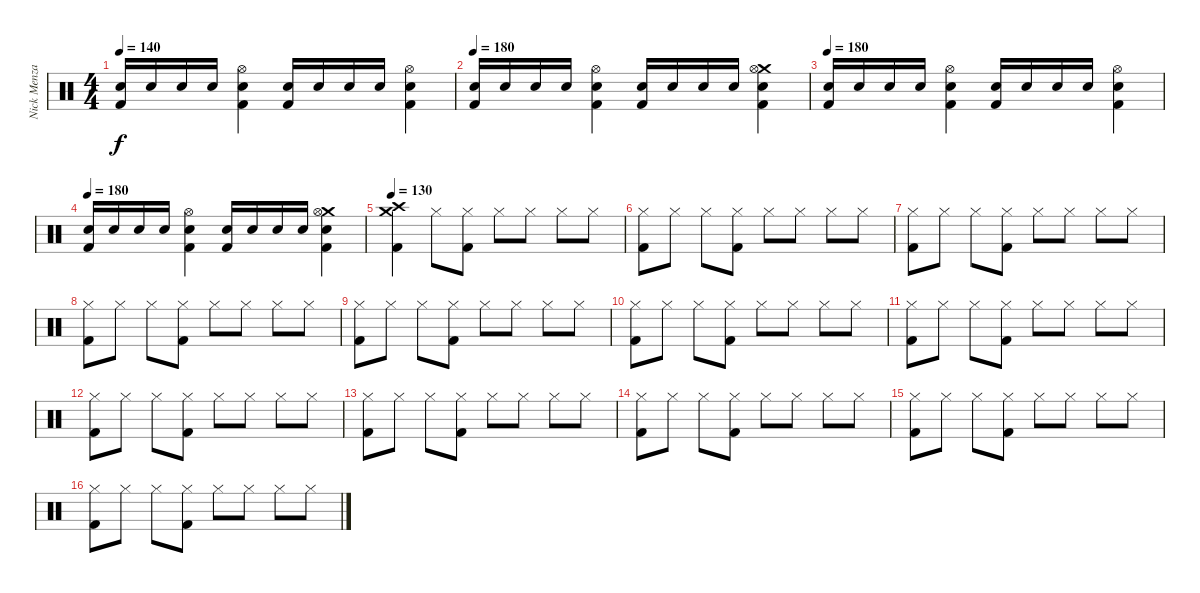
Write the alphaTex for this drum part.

\track ("Nick Menza" "Nick Menza") {instrument percussion}
\staff {score}
\articulation defaults
\ts (4 4)
\tempo 140
\tempo 180
\tempo 140
\clef neutral
\ks c
("Kick (hit) 2" "Electric Snare (hit)").16{dy f} "Electric Snare (hit)".16 "Electric Snare (hit)".16 "Electric Snare (hit)".16 ("Kick (hit) 2" "Electric Snare (hit)" "Hi-Hat (open)").4 ("Kick (hit) 2" "Electric Snare (hit)").16 "Electric Snare (hit)".16 "Electric Snare (hit)".16 "Electric Snare (hit)".16 ("Kick (hit) 2" "Electric Snare (hit)" "Hi-Hat (open)").4 |
\tempo 180
("Kick (hit) 2" "Electric Snare (hit)").16 "Electric Snare (hit)".16 "Electric Snare (hit)".16 "Electric Snare (hit)".16 ("Kick (hit) 2" "Electric Snare (hit)" "Hi-Hat (open)").4 ("Kick (hit) 2" "Electric Snare (hit)").16 "Electric Snare (hit)".16 "Electric Snare (hit)".16 "Electric Snare (hit)".16 ("Crash medium (hit)" "Kick (hit) 2" "Electric Snare (hit)" "Hi-Hat (open)").4 |
\tempo 180
("Kick (hit) 2" "Electric Snare (hit)").16 "Electric Snare (hit)".16 "Electric Snare (hit)".16 "Electric Snare (hit)".16 ("Kick (hit) 2" "Electric Snare (hit)" "Hi-Hat (open)").4 ("Kick (hit) 2" "Electric Snare (hit)").16 "Electric Snare (hit)".16 "Electric Snare (hit)".16 "Electric Snare (hit)".16 ("Kick (hit) 2" "Electric Snare (hit)" "Hi-Hat (open)").4 |
\tempo 180
("Kick (hit) 2" "Electric Snare (hit)").16 "Electric Snare (hit)".16 "Electric Snare (hit)".16 "Electric Snare (hit)".16 ("Kick (hit) 2" "Electric Snare (hit)" "Hi-Hat (open)").4 ("Kick (hit) 2" "Electric Snare (hit)").16 "Electric Snare (hit)".16 "Electric Snare (hit)".16 "Electric Snare (hit)".16 ("Crash medium (hit)" "Kick (hit) 2" "Electric Snare (hit)" "Hi-Hat (open)").4 |
\tempo 130
("Crash high (hit)" "Crash medium (hit)" "Kick (hit) 2").4 "Hi-Hat (closed)".8 ("Hi-Hat (closed)" "Kick (hit) 2").8 "Hi-Hat (closed)".8 "Hi-Hat (closed)".8 "Hi-Hat (closed)".8 "Hi-Hat (closed)".8 |
("Hi-Hat (closed)" "Kick (hit) 2").8 "Hi-Hat (closed)".8 "Hi-Hat (closed)".8 ("Hi-Hat (closed)" "Kick (hit) 2").8 "Hi-Hat (closed)".8 "Hi-Hat (closed)".8 "Hi-Hat (closed)".8 "Hi-Hat (closed)".8 |
("Hi-Hat (closed)" "Kick (hit) 2").8 "Hi-Hat (closed)".8 "Hi-Hat (closed)".8 ("Hi-Hat (closed)" "Kick (hit) 2").8 "Hi-Hat (closed)".8 "Hi-Hat (closed)".8 "Hi-Hat (closed)".8 "Hi-Hat (closed)".8 |
("Hi-Hat (closed)" "Kick (hit) 2").8 "Hi-Hat (closed)".8 "Hi-Hat (closed)".8 ("Hi-Hat (closed)" "Kick (hit) 2").8 "Hi-Hat (closed)".8 "Hi-Hat (closed)".8 "Hi-Hat (closed)".8 "Hi-Hat (closed)".8 |
("Hi-Hat (closed)" "Kick (hit) 2").8 "Hi-Hat (closed)".8 "Hi-Hat (closed)".8 ("Hi-Hat (closed)" "Kick (hit) 2").8 "Hi-Hat (closed)".8 "Hi-Hat (closed)".8 "Hi-Hat (closed)".8 "Hi-Hat (closed)".8 |
("Hi-Hat (closed)" "Kick (hit) 2").8 "Hi-Hat (closed)".8 "Hi-Hat (closed)".8 ("Hi-Hat (closed)" "Kick (hit) 2").8 "Hi-Hat (closed)".8 "Hi-Hat (closed)".8 "Hi-Hat (closed)".8 "Hi-Hat (closed)".8 |
("Hi-Hat (closed)" "Kick (hit) 2").8 "Hi-Hat (closed)".8 "Hi-Hat (closed)".8 ("Hi-Hat (closed)" "Kick (hit) 2").8 "Hi-Hat (closed)".8 "Hi-Hat (closed)".8 "Hi-Hat (closed)".8 "Hi-Hat (closed)".8 |
("Hi-Hat (closed)" "Kick (hit) 2").8 "Hi-Hat (closed)".8 "Hi-Hat (closed)".8 ("Hi-Hat (closed)" "Kick (hit) 2").8 "Hi-Hat (closed)".8 "Hi-Hat (closed)".8 "Hi-Hat (closed)".8 "Hi-Hat (closed)".8 |
("Hi-Hat (closed)" "Kick (hit) 2").8 "Hi-Hat (closed)".8 "Hi-Hat (closed)".8 ("Hi-Hat (closed)" "Kick (hit) 2").8 "Hi-Hat (closed)".8 "Hi-Hat (closed)".8 "Hi-Hat (closed)".8 "Hi-Hat (closed)".8 |
("Hi-Hat (closed)" "Kick (hit) 2").8 "Hi-Hat (closed)".8 "Hi-Hat (closed)".8 ("Hi-Hat (closed)" "Kick (hit) 2").8 "Hi-Hat (closed)".8 "Hi-Hat (closed)".8 "Hi-Hat (closed)".8 "Hi-Hat (closed)".8 |
("Hi-Hat (closed)" "Kick (hit) 2").8 "Hi-Hat (closed)".8 "Hi-Hat (closed)".8 ("Hi-Hat (closed)" "Kick (hit) 2").8 "Hi-Hat (closed)".8 "Hi-Hat (closed)".8 "Hi-Hat (closed)".8 "Hi-Hat (closed)".8 |
("Hi-Hat (closed)" "Kick (hit) 2").8 "Hi-Hat (closed)".8 "Hi-Hat (closed)".8 ("Hi-Hat (closed)" "Kick (hit) 2").8 "Hi-Hat (closed)".8 "Hi-Hat (closed)".8 "Hi-Hat (closed)".8 "Hi-Hat (closed)".8
